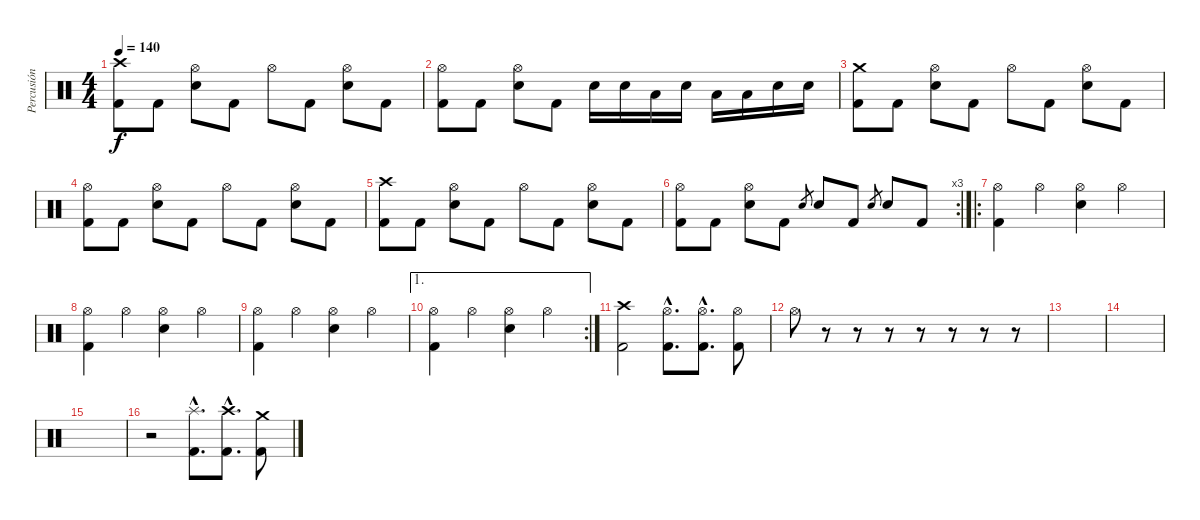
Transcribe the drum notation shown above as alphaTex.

\track ("Percusión" "Percusión") {instrument percussion}
\staff {score}
\articulation defaults
\ts (4 4)
\tempo 140
\clef neutral
\ks c
("Crash high (hit)" "Kick (hit) 2").8{dy f} "Kick (hit) 2".8 ("Hi-Hat (open)" "Electric Snare (hit)").8 "Kick (hit) 2".8 "Hi-Hat (open)".8 "Kick (hit) 2".8 ("Hi-Hat (open)" "Electric Snare (hit)").8 "Kick (hit) 2".8 |
("Hi-Hat (open)" "Kick (hit) 2").8 "Kick (hit) 2".8 ("Hi-Hat (open)" "Electric Snare (hit)").8 "Kick (hit) 2".8 "Electric Snare (hit)".16 "Electric Snare (hit)".16 "Low Tom (hit)".16 "Electric Snare (hit)".16 "Low Tom (hit)".16 "Low Tom (hit)".16 "Electric Snare (hit)".16 "Electric Snare (hit)".16 |
("Crash medium (hit)" "Kick (hit) 2").8 "Kick (hit) 2".8 ("Hi-Hat (open)" "Electric Snare (hit)").8 "Kick (hit) 2".8 "Hi-Hat (open)".8 "Kick (hit) 2".8 ("Hi-Hat (open)" "Electric Snare (hit)").8 "Kick (hit) 2".8 |
("Hi-Hat (open)" "Kick (hit) 2").8 "Kick (hit) 2".8 ("Hi-Hat (open)" "Electric Snare (hit)").8 "Kick (hit) 2".8 "Hi-Hat (open)".8 "Kick (hit) 2".8 ("Hi-Hat (open)" "Electric Snare (hit)").8 "Kick (hit) 2".8 |
("Crash high (hit)" "Kick (hit) 2").8 "Kick (hit) 2".8 ("Hi-Hat (open)" "Electric Snare (hit)").8 "Kick (hit) 2".8 "Hi-Hat (open)".8 "Kick (hit) 2".8 ("Hi-Hat (open)" "Electric Snare (hit)").8 "Kick (hit) 2".8 |
\rc 3
("Hi-Hat (open)" "Kick (hit) 2").8 "Kick (hit) 2".8 ("Hi-Hat (open)" "Electric Snare (hit)").8 "Kick (hit) 2".8 "Electric Snare (hit)".8{gr} "Electric Snare (hit)".8 "Kick (hit) 2".8 "Electric Snare (hit)".8{gr} "Electric Snare (hit)".8 "Kick (hit) 2".8 |
\ro
("Hi-Hat (open)" "Kick (hit) 2").4 "Hi-Hat (open)".4 ("Hi-Hat (open)" "Electric Snare (hit)").4 "Hi-Hat (open)".4 |
("Hi-Hat (open)" "Kick (hit) 2").4 "Hi-Hat (open)".4 ("Hi-Hat (open)" "Electric Snare (hit)").4 "Hi-Hat (open)".4 |
("Hi-Hat (open)" "Kick (hit) 2").4 "Hi-Hat (open)".4 ("Hi-Hat (open)" "Electric Snare (hit)").4 "Hi-Hat (open)".4 |
\ae 1
\rc 2
("Hi-Hat (open)" "Kick (hit) 2").4 "Hi-Hat (open)".4 ("Hi-Hat (open)" "Electric Snare (hit)").4 "Hi-Hat (open)".4 |
("Crash high (hit)" "Kick (hit) 2").2 ("Hi-Hat (open)"{hac} "Kick (hit) 2"{hac}).8{d} ("Hi-Hat (open)"{hac} "Kick (hit) 2"{hac}).8{d} ("Hi-Hat (open)" "Kick (hit) 2").8 |
"Hi-Hat (open)".8 r.8 r.8 r.8 r.8 r.8 r.8 r.8 |
|
|
|
r.2 ("Splash (hit)"{hac} "Kick (hit) 2"{hac}).8{d} ("Crash high (hit)"{hac} "Kick (hit) 2"{hac}).8{d} ("Crash medium (hit)" "Kick (hit) 2").8
